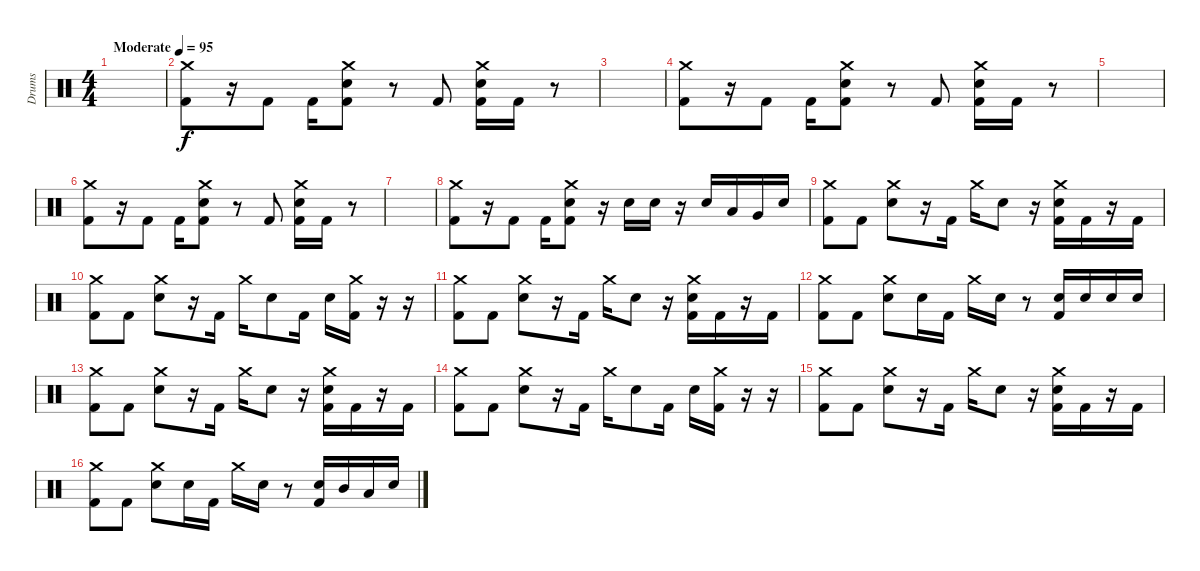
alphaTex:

\track ("Drums" "Drums") {instrument percussion}
\staff {score}
\articulation defaults
\ts (4 4)
\tempo (95 "Moderate")
\clef neutral
\ks c
|
("Crash medium (hit)" "Kick (hit) 2").8 r.16 "Kick (hit) 2".8 "Kick (hit) 2".16 ("Crash medium (hit)" "Electric Snare (hit)" "Kick (hit) 2").8 r.8 "Kick (hit) 2".8 ("Crash medium (hit)" "Electric Snare (hit)" "Kick (hit) 2").16 "Kick (hit) 2".16 r.8 |
|
("Crash medium (hit)" "Kick (hit) 2").8 r.16 "Kick (hit) 2".8 "Kick (hit) 2".16 ("Crash medium (hit)" "Electric Snare (hit)" "Kick (hit) 2").8 r.8 "Kick (hit) 2".8 ("Crash medium (hit)" "Electric Snare (hit)" "Kick (hit) 2").16 "Kick (hit) 2".16 r.8 |
|
("Crash medium (hit)" "Kick (hit) 2").8 r.16 "Kick (hit) 2".8 "Kick (hit) 2".16 ("Crash medium (hit)" "Electric Snare (hit)" "Kick (hit) 2").8 r.8 "Kick (hit) 2".8 ("Crash medium (hit)" "Electric Snare (hit)" "Kick (hit) 2").16 "Kick (hit) 2".16 r.8 |
|
("Crash medium (hit)" "Kick (hit) 2").8 r.16 "Kick (hit) 2".8 "Kick (hit) 2".16 ("Crash medium (hit)" "Electric Snare (hit)" "Kick (hit) 2").8 r.16 "Electric Snare (hit)".16 "Electric Snare (hit)".16 r.16 "Electric Snare (hit)".16 "Low Tom (hit)".16 "Very Low Tom (hit)".16 "Electric Snare (hit)".16 |
("Crash medium (hit)" "Kick (hit) 2").8 "Kick (hit) 2".8 ("Crash medium (hit)" "Electric Snare (hit)").8 r.16 "Kick (hit) 2".16 "Crash medium (hit)".16 "Electric Snare (hit)".8 r.16 ("Crash medium (hit)" "Electric Snare (hit)" "Kick (hit) 2").16 "Kick (hit) 2".16 r.16 "Kick (hit) 2".16 |
("Crash medium (hit)" "Kick (hit) 2").8 "Kick (hit) 2".8 ("Crash medium (hit)" "Electric Snare (hit)").8 r.16 "Kick (hit) 2".16 "Crash medium (hit)".16 "Electric Snare (hit)".8 "Kick (hit) 2".16 "Electric Snare (hit)".16 ("Crash medium (hit)" "Kick (hit) 2").16 r.16 r.16 |
("Crash medium (hit)" "Kick (hit) 2").8 "Kick (hit) 2".8 ("Crash medium (hit)" "Electric Snare (hit)").8 r.16 "Kick (hit) 2".16 "Crash medium (hit)".16 "Electric Snare (hit)".8 r.16 ("Crash medium (hit)" "Electric Snare (hit)" "Kick (hit) 2").16 "Kick (hit) 2".16 r.16 "Kick (hit) 2".16 |
("Crash medium (hit)" "Kick (hit) 2").8 "Kick (hit) 2".8 ("Crash medium (hit)" "Electric Snare (hit)").8 "Electric Snare (hit)".16 "Kick (hit) 2".16 "Crash medium (hit)".16 "Electric Snare (hit)".16 r.8 ("Electric Snare (hit)" "Kick (hit) 2").16 "Electric Snare (hit)".16 "Electric Snare (hit)".16 "Electric Snare (hit)".16 |
("Crash medium (hit)" "Kick (hit) 2").8 "Kick (hit) 2".8 ("Crash medium (hit)" "Electric Snare (hit)").8 r.16 "Kick (hit) 2".16 "Crash medium (hit)".16 "Electric Snare (hit)".8 r.16 ("Crash medium (hit)" "Electric Snare (hit)" "Kick (hit) 2").16 "Kick (hit) 2".16 r.16 "Kick (hit) 2".16 |
("Crash medium (hit)" "Kick (hit) 2").8 "Kick (hit) 2".8 ("Crash medium (hit)" "Electric Snare (hit)").8 r.16 "Kick (hit) 2".16 "Crash medium (hit)".16 "Electric Snare (hit)".8 "Kick (hit) 2".16 "Electric Snare (hit)".16 ("Crash medium (hit)" "Kick (hit) 2").16 r.16 r.16 |
("Crash medium (hit)" "Kick (hit) 2").8 "Kick (hit) 2".8 ("Crash medium (hit)" "Electric Snare (hit)").8 r.16 "Kick (hit) 2".16 "Crash medium (hit)".16 "Electric Snare (hit)".8 r.16 ("Crash medium (hit)" "Electric Snare (hit)" "Kick (hit) 2").16 "Kick (hit) 2".16 r.16 "Kick (hit) 2".16 |
("Crash medium (hit)" "Kick (hit) 2").8 "Kick (hit) 2".8 ("Crash medium (hit)" "Electric Snare (hit)").8 "Electric Snare (hit)".16 "Kick (hit) 2".16 "Crash medium (hit)".16 "Electric Snare (hit)".16 r.8 ("Electric Snare (hit)" "Kick (hit) 2").16 "Mid Tom (hit)".16 "Low Tom (hit)".16 "Electric Snare (hit)".16
